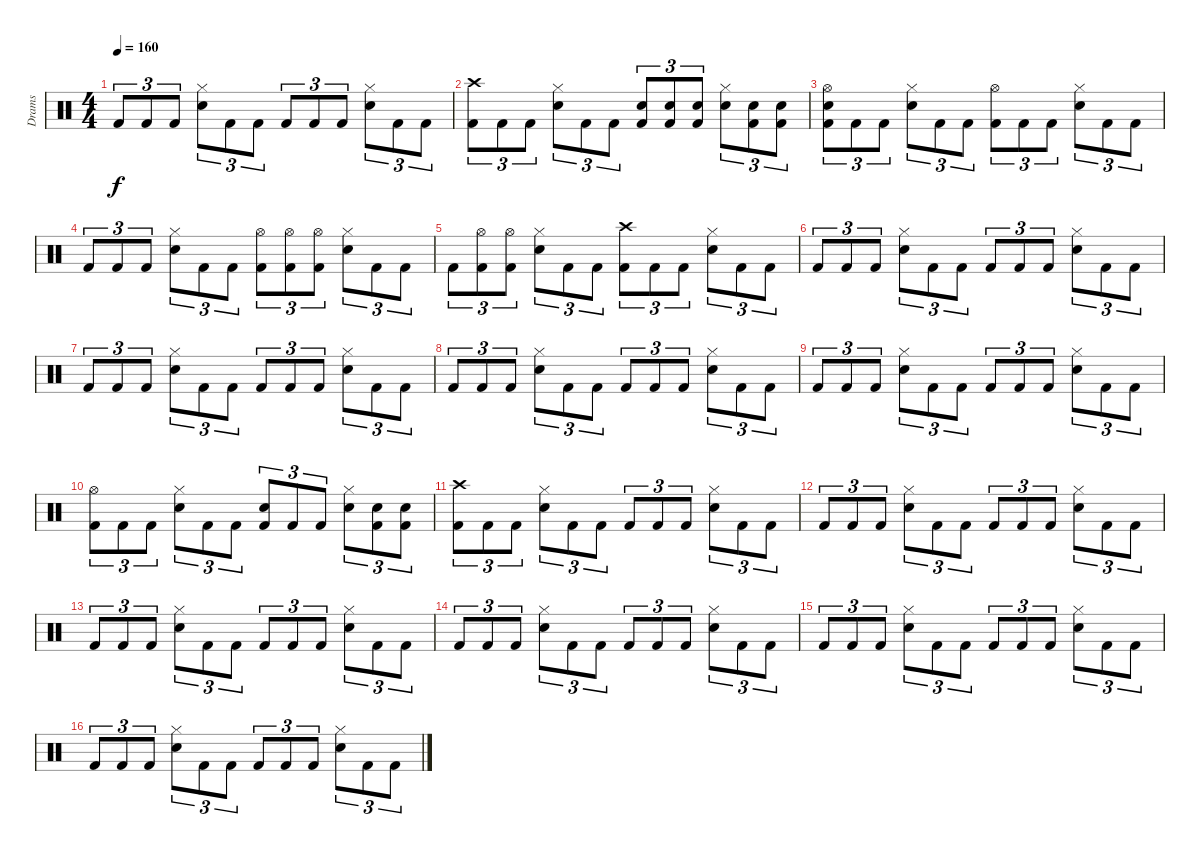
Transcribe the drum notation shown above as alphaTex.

\track ("Drams" "Drams") {instrument percussion}
\staff {score}
\articulation defaults
\ts (4 4)
\tempo 160
\clef neutral
\ks c "Kick (hit) 2".8{tu (3 2) dy f} "Kick (hit) 2".8{tu (3 2)} "Kick (hit) 2".8{tu (3 2)}
("Hi-Hat (closed)" "Snare (hit) 2").8{tu (3 2)} "Kick (hit) 2".8{tu (3 2)} "Kick (hit) 2".8{tu (3 2)} "Kick (hit) 2".8{tu (3 2)} "Kick (hit) 2".8{tu (3 2)} "Kick (hit) 2".8{tu (3 2)} ("Hi-Hat (closed)" "Snare (hit) 2").8{tu (3 2)} "Kick (hit) 2".8{tu (3 2)} "Kick (hit) 2".8{tu (3 2)} |
("Crash high (hit)" "Kick (hit) 2").8{tu (3 2)} "Kick (hit) 2".8{tu (3 2)} "Kick (hit) 2".8{tu (3 2)} ("Hi-Hat (closed)" "Snare (hit) 2").8{tu (3 2)} "Kick (hit) 2".8{tu (3 2)} "Kick (hit) 2".8{tu (3 2)} ("Snare (hit) 2" "Kick (hit) 2").8{tu (3 2)} ("Snare (hit) 2" "Kick (hit) 2").8{tu (3 2)} ("Snare (hit) 2" "Kick (hit) 2").8{tu (3 2)} ("Hi-Hat (closed)" "Snare (hit) 2").8{tu (3 2)} ("Snare (hit) 2" "Kick (hit) 2").8{tu (3 2)} ("Snare (hit) 2" "Kick (hit) 2").8{tu (3 2)} |
("Hi-Hat (open)" "Snare (hit) 2" "Kick (hit) 2").8{tu (3 2)} "Kick (hit) 2".8{tu (3 2)} "Kick (hit) 2".8{tu (3 2)} ("Hi-Hat (closed)" "Snare (hit) 2").8{tu (3 2)} "Kick (hit) 2".8{tu (3 2)} "Kick (hit) 2".8{tu (3 2)} ("Hi-Hat (open)" "Kick (hit) 2").8{tu (3 2)} "Kick (hit) 2".8{tu (3 2)} "Kick (hit) 2".8{tu (3 2)} ("Hi-Hat (closed)" "Snare (hit) 2").8{tu (3 2)} "Kick (hit) 2".8{tu (3 2)} "Kick (hit) 2".8{tu (3 2)} |
"Kick (hit) 2".8{tu (3 2)} "Kick (hit) 2".8{tu (3 2)} "Kick (hit) 2".8{tu (3 2)} ("Hi-Hat (closed)" "Snare (hit) 2").8{tu (3 2)} "Kick (hit) 2".8{tu (3 2)} "Kick (hit) 2".8{tu (3 2)} ("Hi-Hat (open)" "Kick (hit) 2").8{tu (3 2)} ("Hi-Hat (open)" "Kick (hit) 2").8{tu (3 2)} ("Hi-Hat (open)" "Kick (hit) 2").8{tu (3 2)} ("Hi-Hat (closed)" "Snare (hit) 2").8{tu (3 2)} "Kick (hit) 2".8{tu (3 2)} "Kick (hit) 2".8{tu (3 2)} |
"Kick (hit) 2".8{tu (3 2)} ("Hi-Hat (open)" "Kick (hit) 2").8{tu (3 2)} ("Hi-Hat (open)" "Kick (hit) 2").8{tu (3 2)} ("Hi-Hat (closed)" "Snare (hit) 2").8{tu (3 2)} "Kick (hit) 2".8{tu (3 2)} "Kick (hit) 2".8{tu (3 2)} ("Crash high (hit)" "Kick (hit) 2").8{tu (3 2)} "Kick (hit) 2".8{tu (3 2)} "Kick (hit) 2".8{tu (3 2)} ("Hi-Hat (closed)" "Snare (hit) 2").8{tu (3 2)} "Kick (hit) 2".8{tu (3 2)} "Kick (hit) 2".8{tu (3 2)} |
"Kick (hit) 2".8{tu (3 2)} "Kick (hit) 2".8{tu (3 2)} "Kick (hit) 2".8{tu (3 2)} ("Hi-Hat (closed)" "Snare (hit) 2").8{tu (3 2)} "Kick (hit) 2".8{tu (3 2)} "Kick (hit) 2".8{tu (3 2)} "Kick (hit) 2".8{tu (3 2)} "Kick (hit) 2".8{tu (3 2)} "Kick (hit) 2".8{tu (3 2)} ("Hi-Hat (closed)" "Snare (hit) 2").8{tu (3 2)} "Kick (hit) 2".8{tu (3 2)} "Kick (hit) 2".8{tu (3 2)} |
"Kick (hit) 2".8{tu (3 2)} "Kick (hit) 2".8{tu (3 2)} "Kick (hit) 2".8{tu (3 2)} ("Hi-Hat (closed)" "Snare (hit) 2").8{tu (3 2)} "Kick (hit) 2".8{tu (3 2)} "Kick (hit) 2".8{tu (3 2)} "Kick (hit) 2".8{tu (3 2)} "Kick (hit) 2".8{tu (3 2)} "Kick (hit) 2".8{tu (3 2)} ("Hi-Hat (closed)" "Snare (hit) 2").8{tu (3 2)} "Kick (hit) 2".8{tu (3 2)} "Kick (hit) 2".8{tu (3 2)} |
"Kick (hit) 2".8{tu (3 2)} "Kick (hit) 2".8{tu (3 2)} "Kick (hit) 2".8{tu (3 2)} ("Hi-Hat (closed)" "Snare (hit) 2").8{tu (3 2)} "Kick (hit) 2".8{tu (3 2)} "Kick (hit) 2".8{tu (3 2)} "Kick (hit) 2".8{tu (3 2)} "Kick (hit) 2".8{tu (3 2)} "Kick (hit) 2".8{tu (3 2)} ("Hi-Hat (closed)" "Snare (hit) 2").8{tu (3 2)} "Kick (hit) 2".8{tu (3 2)} "Kick (hit) 2".8{tu (3 2)} |
"Kick (hit) 2".8{tu (3 2)} "Kick (hit) 2".8{tu (3 2)} "Kick (hit) 2".8{tu (3 2)} ("Hi-Hat (closed)" "Snare (hit) 2").8{tu (3 2)} "Kick (hit) 2".8{tu (3 2)} "Kick (hit) 2".8{tu (3 2)} "Kick (hit) 2".8{tu (3 2)} "Kick (hit) 2".8{tu (3 2)} "Kick (hit) 2".8{tu (3 2)} ("Hi-Hat (closed)" "Snare (hit) 2").8{tu (3 2)} "Kick (hit) 2".8{tu (3 2)} "Kick (hit) 2".8{tu (3 2)} |
("Hi-Hat (open)" "Kick (hit) 2").8{tu (3 2)} "Kick (hit) 2".8{tu (3 2)} "Kick (hit) 2".8{tu (3 2)} ("Hi-Hat (closed)" "Snare (hit) 2").8{tu (3 2)} "Kick (hit) 2".8{tu (3 2)} "Kick (hit) 2".8{tu (3 2)} ("Snare (hit) 2" "Kick (hit) 2").8{tu (3 2)} "Kick (hit) 2".8{tu (3 2)} "Kick (hit) 2".8{tu (3 2)} ("Hi-Hat (closed)" "Snare (hit) 2").8{tu (3 2)} ("Snare (hit) 2" "Kick (hit) 2").8{tu (3 2)} ("Snare (hit) 2" "Kick (hit) 2").8{tu (3 2)} |
("Crash high (hit)" "Kick (hit) 2").8{tu (3 2)} "Kick (hit) 2".8{tu (3 2)} "Kick (hit) 2".8{tu (3 2)} ("Hi-Hat (closed)" "Snare (hit) 2").8{tu (3 2)} "Kick (hit) 2".8{tu (3 2)} "Kick (hit) 2".8{tu (3 2)} "Kick (hit) 2".8{tu (3 2)} "Kick (hit) 2".8{tu (3 2)} "Kick (hit) 2".8{tu (3 2)} ("Hi-Hat (closed)" "Snare (hit) 2").8{tu (3 2)} "Kick (hit) 2".8{tu (3 2)} "Kick (hit) 2".8{tu (3 2)} |
"Kick (hit) 2".8{tu (3 2)} "Kick (hit) 2".8{tu (3 2)} "Kick (hit) 2".8{tu (3 2)} ("Hi-Hat (closed)" "Snare (hit) 2").8{tu (3 2)} "Kick (hit) 2".8{tu (3 2)} "Kick (hit) 2".8{tu (3 2)} "Kick (hit) 2".8{tu (3 2)} "Kick (hit) 2".8{tu (3 2)} "Kick (hit) 2".8{tu (3 2)} ("Hi-Hat (closed)" "Snare (hit) 2").8{tu (3 2)} "Kick (hit) 2".8{tu (3 2)} "Kick (hit) 2".8{tu (3 2)} |
"Kick (hit) 2".8{tu (3 2)} "Kick (hit) 2".8{tu (3 2)} "Kick (hit) 2".8{tu (3 2)} ("Hi-Hat (closed)" "Snare (hit) 2").8{tu (3 2)} "Kick (hit) 2".8{tu (3 2)} "Kick (hit) 2".8{tu (3 2)} "Kick (hit) 2".8{tu (3 2)} "Kick (hit) 2".8{tu (3 2)} "Kick (hit) 2".8{tu (3 2)} ("Hi-Hat (closed)" "Snare (hit) 2").8{tu (3 2)} "Kick (hit) 2".8{tu (3 2)} "Kick (hit) 2".8{tu (3 2)} |
"Kick (hit) 2".8{tu (3 2)} "Kick (hit) 2".8{tu (3 2)} "Kick (hit) 2".8{tu (3 2)} ("Hi-Hat (closed)" "Snare (hit) 2").8{tu (3 2)} "Kick (hit) 2".8{tu (3 2)} "Kick (hit) 2".8{tu (3 2)} "Kick (hit) 2".8{tu (3 2)} "Kick (hit) 2".8{tu (3 2)} "Kick (hit) 2".8{tu (3 2)} ("Hi-Hat (closed)" "Snare (hit) 2").8{tu (3 2)} "Kick (hit) 2".8{tu (3 2)} "Kick (hit) 2".8{tu (3 2)} |
"Kick (hit) 2".8{tu (3 2)} "Kick (hit) 2".8{tu (3 2)} "Kick (hit) 2".8{tu (3 2)} ("Hi-Hat (closed)" "Snare (hit) 2").8{tu (3 2)} "Kick (hit) 2".8{tu (3 2)} "Kick (hit) 2".8{tu (3 2)} "Kick (hit) 2".8{tu (3 2)} "Kick (hit) 2".8{tu (3 2)} "Kick (hit) 2".8{tu (3 2)} ("Hi-Hat (closed)" "Snare (hit) 2").8{tu (3 2)} "Kick (hit) 2".8{tu (3 2)} "Kick (hit) 2".8{tu (3 2)} |
"Kick (hit) 2".8{tu (3 2)} "Kick (hit) 2".8{tu (3 2)} "Kick (hit) 2".8{tu (3 2)} ("Hi-Hat (closed)" "Snare (hit) 2").8{tu (3 2)} "Kick (hit) 2".8{tu (3 2)} "Kick (hit) 2".8{tu (3 2)} "Kick (hit) 2".8{tu (3 2)} "Kick (hit) 2".8{tu (3 2)} "Kick (hit) 2".8{tu (3 2)} ("Hi-Hat (closed)" "Snare (hit) 2").8{tu (3 2)} "Kick (hit) 2".8{tu (3 2)} "Kick (hit) 2".8{tu (3 2)}
